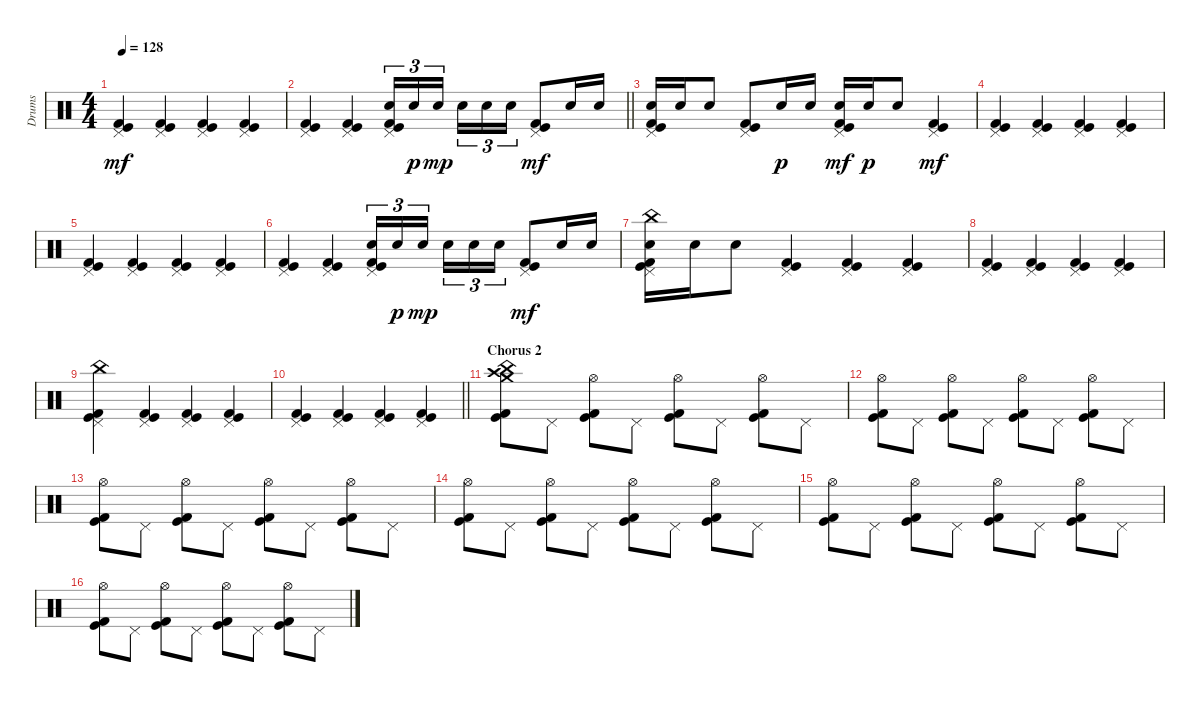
\track ("Drums" "Drums") {instrument percussion}
\staff {score}
\articulation defaults
\ts (4 4)
\tempo 128
\clef neutral
\ks c
("Pedal Hi-Hat (hit)" "Kick (hit) 2" "Kick (hit)").4{dy mf} ("Pedal Hi-Hat (hit)" "Kick (hit) 2" "Kick (hit)").4 ("Pedal Hi-Hat (hit)" "Kick (hit) 2" "Kick (hit)").4 ("Pedal Hi-Hat (hit)" "Kick (hit) 2" "Kick (hit)").4 |
\barLineRight lightlight
("Pedal Hi-Hat (hit)" "Kick (hit) 2" "Kick (hit)").4 ("Pedal Hi-Hat (hit)" "Kick (hit) 2" "Kick (hit)").4 ("Pedal Hi-Hat (hit)" "Electric Snare (hit)" "Kick (hit) 2" "Kick (hit)").16{tu (3 2)} "Electric Snare (hit)".16{tu (3 2) dy p} "Electric Snare (hit)".16{tu (3 2) dy mp beam splitsecondary} "Electric Snare (hit)".16{tu (3 2)} "Electric Snare (hit)".16{tu (3 2)} "Electric Snare (hit)".16{tu (3 2)} ("Pedal Hi-Hat (hit)" "Kick (hit) 2" "Kick (hit)").8{dy mf} "Electric Snare (hit)".16 "Electric Snare (hit)".16 |
("Pedal Hi-Hat (hit)" "Electric Snare (hit)" "Kick (hit) 2" "Kick (hit)").16 "Electric Snare (hit)".16 "Electric Snare (hit)".8 ("Pedal Hi-Hat (hit)" "Kick (hit) 2" "Kick (hit)").8 "Electric Snare (hit)".16{dy p} "Electric Snare (hit)".16 ("Pedal Hi-Hat (hit)" "Electric Snare (hit)" "Kick (hit) 2" "Kick (hit)").16{dy mf} "Electric Snare (hit)".16{dy p} "Electric Snare (hit)".8 ("Pedal Hi-Hat (hit)" "Kick (hit) 2" "Kick (hit)").4{dy mf} |
("Pedal Hi-Hat (hit)" "Kick (hit) 2" "Kick (hit)").4 ("Pedal Hi-Hat (hit)" "Kick (hit) 2" "Kick (hit)").4 ("Pedal Hi-Hat (hit)" "Kick (hit) 2" "Kick (hit)").4 ("Pedal Hi-Hat (hit)" "Kick (hit) 2" "Kick (hit)").4 |
("Pedal Hi-Hat (hit)" "Kick (hit) 2" "Kick (hit)").4 ("Pedal Hi-Hat (hit)" "Kick (hit) 2" "Kick (hit)").4 ("Pedal Hi-Hat (hit)" "Kick (hit) 2" "Kick (hit)").4 ("Pedal Hi-Hat (hit)" "Kick (hit) 2" "Kick (hit)").4 |
("Pedal Hi-Hat (hit)" "Kick (hit) 2" "Kick (hit)").4 ("Pedal Hi-Hat (hit)" "Kick (hit) 2" "Kick (hit)").4 ("Pedal Hi-Hat (hit)" "Electric Snare (hit)" "Kick (hit) 2" "Kick (hit)").16{tu (3 2)} "Electric Snare (hit)".16{tu (3 2) dy p} "Electric Snare (hit)".16{tu (3 2) dy mp beam splitsecondary} "Electric Snare (hit)".16{tu (3 2)} "Electric Snare (hit)".16{tu (3 2)} "Electric Snare (hit)".16{tu (3 2)} ("Pedal Hi-Hat (hit)" "Kick (hit) 2" "Kick (hit)").8{dy mf} "Electric Snare (hit)".16 "Electric Snare (hit)".16 |
("China (hit)" "Pedal Hi-Hat (hit)" "Electric Snare (hit)" "Kick (hit) 2" "Kick (hit)").16 "Electric Snare (hit)".16 "Electric Snare (hit)".8 ("Pedal Hi-Hat (hit)" "Kick (hit) 2" "Kick (hit)").4 ("Pedal Hi-Hat (hit)" "Kick (hit) 2" "Kick (hit)").4 ("Pedal Hi-Hat (hit)" "Kick (hit) 2" "Kick (hit)").4 |
("Pedal Hi-Hat (hit)" "Kick (hit) 2" "Kick (hit)").4 ("Pedal Hi-Hat (hit)" "Kick (hit) 2" "Kick (hit)").4 ("Pedal Hi-Hat (hit)" "Kick (hit) 2" "Kick (hit)").4 ("Pedal Hi-Hat (hit)" "Kick (hit) 2" "Kick (hit)").4 |
("China (hit)" "Pedal Hi-Hat (hit)" "Kick (hit) 2" "Kick (hit)").4 ("Pedal Hi-Hat (hit)" "Kick (hit) 2" "Kick (hit)").4 ("Pedal Hi-Hat (hit)" "Kick (hit) 2" "Kick (hit)").4 ("Pedal Hi-Hat (hit)" "Kick (hit) 2" "Kick (hit)").4 |
\barLineRight lightlight
("Pedal Hi-Hat (hit)" "Kick (hit) 2" "Kick (hit)").4 ("Pedal Hi-Hat (hit)" "Kick (hit) 2" "Kick (hit)").4 ("Pedal Hi-Hat (hit)" "Kick (hit) 2" "Kick (hit)").4 ("Pedal Hi-Hat (hit)" "Kick (hit) 2" "Kick (hit)").4 |
\section ("" "Chorus 2")
("Crash high (hit)" "Crash medium (hit)" "China (hit)" "Kick (hit) 2" "Kick (hit)").8 "Pedal Hi-Hat (hit)".8 ("Hi-Hat (open)" "Kick (hit) 2" "Kick (hit)").8 "Pedal Hi-Hat (hit)".8 ("Hi-Hat (open)" "Kick (hit) 2" "Kick (hit)").8 "Pedal Hi-Hat (hit)".8 ("Hi-Hat (open)" "Kick (hit) 2" "Kick (hit)").8 "Pedal Hi-Hat (hit)".8 |
("Hi-Hat (open)" "Kick (hit) 2" "Kick (hit)").8 "Pedal Hi-Hat (hit)".8 ("Hi-Hat (open)" "Kick (hit) 2" "Kick (hit)").8 "Pedal Hi-Hat (hit)".8 ("Hi-Hat (open)" "Kick (hit) 2" "Kick (hit)").8 "Pedal Hi-Hat (hit)".8 ("Hi-Hat (open)" "Kick (hit) 2" "Kick (hit)").8 "Pedal Hi-Hat (hit)".8 |
("Hi-Hat (open)" "Kick (hit) 2" "Kick (hit)").8 "Pedal Hi-Hat (hit)".8 ("Hi-Hat (open)" "Kick (hit) 2" "Kick (hit)").8 "Pedal Hi-Hat (hit)".8 ("Hi-Hat (open)" "Kick (hit) 2" "Kick (hit)").8 "Pedal Hi-Hat (hit)".8 ("Hi-Hat (open)" "Kick (hit) 2" "Kick (hit)").8 "Pedal Hi-Hat (hit)".8 |
("Hi-Hat (open)" "Kick (hit) 2" "Kick (hit)").8 "Pedal Hi-Hat (hit)".8 ("Hi-Hat (open)" "Kick (hit) 2" "Kick (hit)").8 "Pedal Hi-Hat (hit)".8 ("Hi-Hat (open)" "Kick (hit) 2" "Kick (hit)").8 "Pedal Hi-Hat (hit)".8 ("Hi-Hat (open)" "Kick (hit) 2" "Kick (hit)").8 "Pedal Hi-Hat (hit)".8 |
("Hi-Hat (open)" "Kick (hit) 2" "Kick (hit)").8 "Pedal Hi-Hat (hit)".8 ("Hi-Hat (open)" "Kick (hit) 2" "Kick (hit)").8 "Pedal Hi-Hat (hit)".8 ("Hi-Hat (open)" "Kick (hit) 2" "Kick (hit)").8 "Pedal Hi-Hat (hit)".8 ("Hi-Hat (open)" "Kick (hit) 2" "Kick (hit)").8 "Pedal Hi-Hat (hit)".8 |
("Hi-Hat (open)" "Kick (hit) 2" "Kick (hit)").8 "Pedal Hi-Hat (hit)".8 ("Hi-Hat (open)" "Kick (hit) 2" "Kick (hit)").8 "Pedal Hi-Hat (hit)".8 ("Hi-Hat (open)" "Kick (hit) 2" "Kick (hit)").8 "Pedal Hi-Hat (hit)".8 ("Hi-Hat (open)" "Kick (hit) 2" "Kick (hit)").8 "Pedal Hi-Hat (hit)".8
